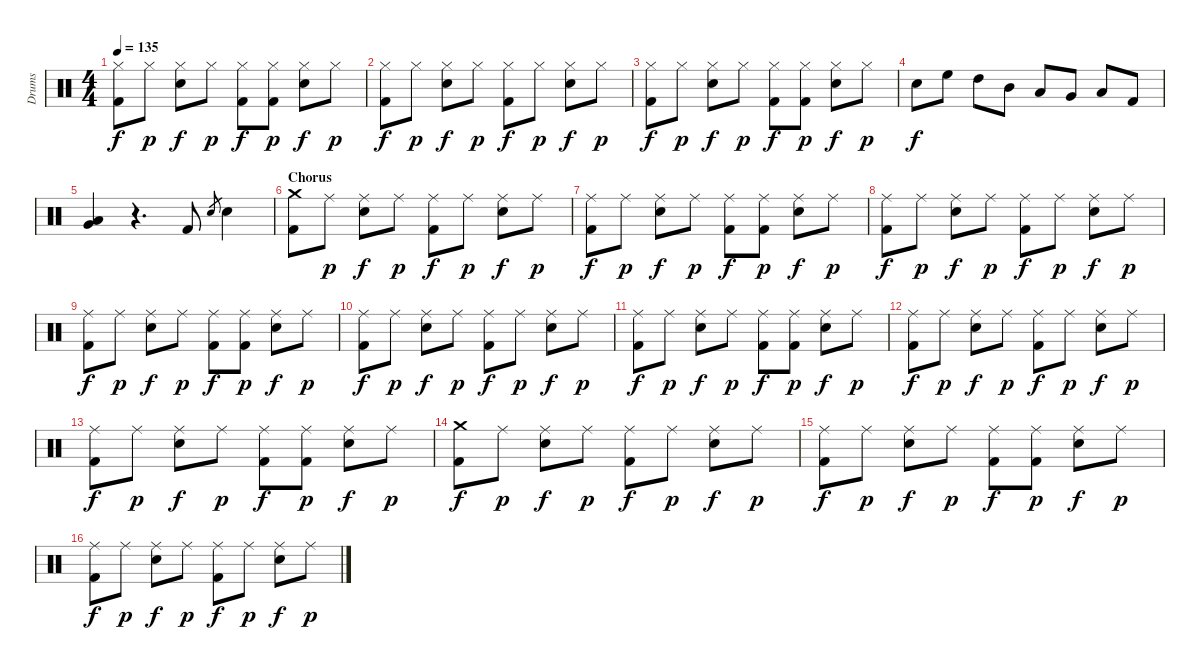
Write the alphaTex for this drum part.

\track ("Drums" "Drums") {instrument percussion}
\staff {score}
\articulation defaults
\ts (4 4)
\tempo 135
\clef neutral
\ks c
("Hi-Hat (closed)" "Kick (hit) 2").8{dy f} "Hi-Hat (closed)".8{dy p} ("Hi-Hat (closed)" "Snare (hit) 2").8{dy f} "Hi-Hat (closed)".8{dy p} ("Hi-Hat (closed)" "Kick (hit) 2").8{dy f} ("Hi-Hat (closed)" "Kick (hit) 2").8{dy p} ("Hi-Hat (closed)" "Snare (hit) 2").8{dy f} "Hi-Hat (closed)".8{dy p} |
("Hi-Hat (closed)" "Kick (hit) 2").8{dy f} "Hi-Hat (closed)".8{dy p} ("Hi-Hat (closed)" "Snare (hit) 2").8{dy f} "Hi-Hat (closed)".8{dy p} ("Hi-Hat (closed)" "Kick (hit) 2").8{dy f} "Hi-Hat (closed)".8{dy p} ("Hi-Hat (closed)" "Snare (hit) 2").8{dy f} "Hi-Hat (closed)".8{dy p} |
("Hi-Hat (closed)" "Kick (hit) 2").8{dy f} "Hi-Hat (closed)".8{dy p} ("Hi-Hat (closed)" "Snare (hit) 2").8{dy f} "Hi-Hat (closed)".8{dy p} ("Hi-Hat (closed)" "Kick (hit) 2").8{dy f} ("Hi-Hat (closed)" "Kick (hit) 2").8{dy p} ("Hi-Hat (closed)" "Snare (hit) 2").8{dy f} "Hi-Hat (closed)".8{dy p} |
"Snare (hit) 2".8{dy f} "High Floor Tom (hit)".8 "High Tom (hit)".8 "Mid Tom (hit)".8 "Low Tom (hit)".8 "Very Low Tom (hit)".8 "Low Floor Tom (hit)".8 "Kick (hit) 2".8 |
("Very Low Tom (hit)" "Low Floor Tom (hit)").4 r.4{d} "Kick (hit) 2".8 "Snare (hit) 2".8{gr} "Snare (hit) 2".4 |
\section ("" "Chorus")
("Crash medium (hit)" "Kick (hit) 2").8 "Ride (middle)".8{dy p} ("Ride (middle)" "Snare (hit) 2").8{dy f} "Ride (middle)".8{dy p} ("Ride (middle)" "Kick (hit) 2").8{dy f} "Ride (middle)".8{dy p} ("Ride (middle)" "Snare (hit) 2").8{dy f} "Ride (middle)".8{dy p} |
("Ride (middle)" "Kick (hit) 2").8{dy f} "Ride (middle)".8{dy p} ("Ride (middle)" "Snare (hit) 2").8{dy f} "Ride (middle)".8{dy p} ("Ride (middle)" "Kick (hit) 2").8{dy f} ("Ride (middle)" "Kick (hit) 2").8{dy p} ("Ride (middle)" "Snare (hit) 2").8{dy f} "Ride (middle)".8{dy p} |
("Ride (middle)" "Kick (hit) 2").8{dy f} "Ride (middle)".8{dy p} ("Ride (middle)" "Snare (hit) 2").8{dy f} "Ride (middle)".8{dy p} ("Ride (middle)" "Kick (hit) 2").8{dy f} "Ride (middle)".8{dy p} ("Ride (middle)" "Snare (hit) 2").8{dy f} "Ride (middle)".8{dy p} |
("Ride (middle)" "Kick (hit) 2").8{dy f} "Ride (middle)".8{dy p} ("Ride (middle)" "Snare (hit) 2").8{dy f} "Ride (middle)".8{dy p} ("Ride (middle)" "Kick (hit) 2").8{dy f} ("Ride (middle)" "Kick (hit) 2").8{dy p} ("Ride (middle)" "Snare (hit) 2").8{dy f} "Ride (middle)".8{dy p} |
("Ride (middle)" "Kick (hit) 2").8{dy f} "Ride (middle)".8{dy p} ("Ride (middle)" "Snare (hit) 2").8{dy f} "Ride (middle)".8{dy p} ("Ride (middle)" "Kick (hit) 2").8{dy f} "Ride (middle)".8{dy p} ("Ride (middle)" "Snare (hit) 2").8{dy f} "Ride (middle)".8{dy p} |
("Ride (middle)" "Kick (hit) 2").8{dy f} "Ride (middle)".8{dy p} ("Ride (middle)" "Snare (hit) 2").8{dy f} "Ride (middle)".8{dy p} ("Ride (middle)" "Kick (hit) 2").8{dy f} ("Ride (middle)" "Kick (hit) 2").8{dy p} ("Ride (middle)" "Snare (hit) 2").8{dy f} "Ride (middle)".8{dy p} |
("Ride (middle)" "Kick (hit) 2").8{dy f} "Ride (middle)".8{dy p} ("Ride (middle)" "Snare (hit) 2").8{dy f} "Ride (middle)".8{dy p} ("Ride (middle)" "Kick (hit) 2").8{dy f} "Ride (middle)".8{dy p} ("Ride (middle)" "Snare (hit) 2").8{dy f} "Ride (middle)".8{dy p} |
("Ride (middle)" "Kick (hit) 2").8{dy f} "Ride (middle)".8{dy p} ("Ride (middle)" "Snare (hit) 2").8{dy f} "Ride (middle)".8{dy p} ("Ride (middle)" "Kick (hit) 2").8{dy f} ("Ride (middle)" "Kick (hit) 2").8{dy p} ("Ride (middle)" "Snare (hit) 2").8{dy f} "Ride (middle)".8{dy p} |
("Crash medium (hit)" "Kick (hit) 2").8{dy f} "Ride (middle)".8{dy p} ("Ride (middle)" "Snare (hit) 2").8{dy f} "Ride (middle)".8{dy p} ("Ride (middle)" "Kick (hit) 2").8{dy f} "Ride (middle)".8{dy p} ("Ride (middle)" "Snare (hit) 2").8{dy f} "Ride (middle)".8{dy p} |
("Ride (middle)" "Kick (hit) 2").8{dy f} "Ride (middle)".8{dy p} ("Ride (middle)" "Snare (hit) 2").8{dy f} "Ride (middle)".8{dy p} ("Ride (middle)" "Kick (hit) 2").8{dy f} ("Ride (middle)" "Kick (hit) 2").8{dy p} ("Ride (middle)" "Snare (hit) 2").8{dy f} "Ride (middle)".8{dy p} |
("Ride (middle)" "Kick (hit) 2").8{dy f} "Ride (middle)".8{dy p} ("Ride (middle)" "Snare (hit) 2").8{dy f} "Ride (middle)".8{dy p} ("Ride (middle)" "Kick (hit) 2").8{dy f} "Ride (middle)".8{dy p} ("Ride (middle)" "Snare (hit) 2").8{dy f} "Ride (middle)".8{dy p}
